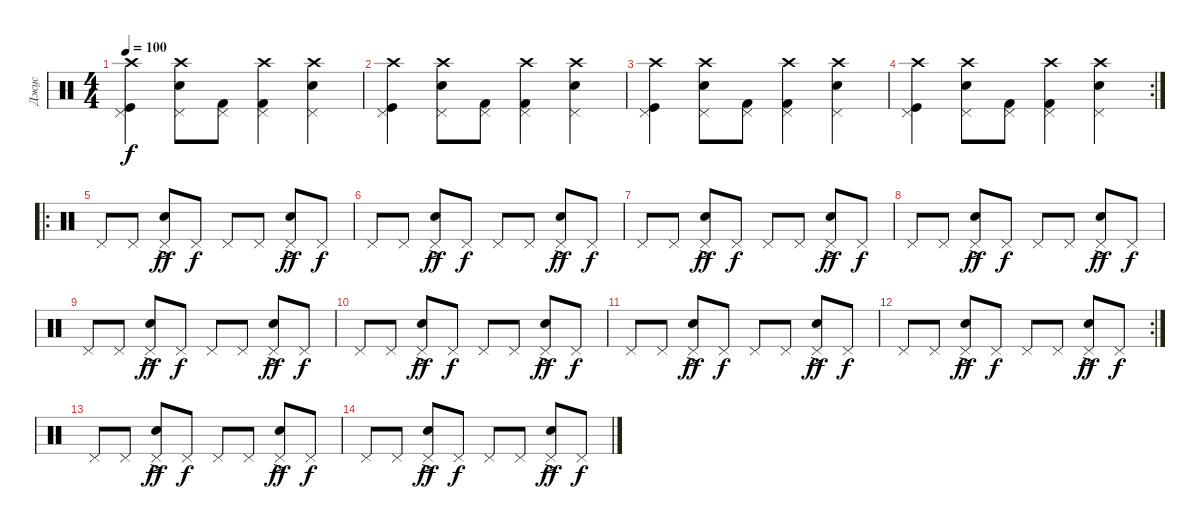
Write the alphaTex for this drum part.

\track ("Джус" "Джус") {instrument percussion}
\staff {score}
\articulation defaults
\ts (4 4)
\tempo 100
\clef neutral
\ks c
("Crash high (hit)" "Pedal Hi-Hat (hit)" "Kick (hit)").4{dy f} ("Crash high (hit)" "Pedal Hi-Hat (hit)" "Electric Snare (hit)").8 ("Pedal Hi-Hat (hit)" "Kick (hit) 2").8 ("Crash high (hit)" "Pedal Hi-Hat (hit)" "Kick (hit) 2").4 ("Crash high (hit)" "Pedal Hi-Hat (hit)" "Electric Snare (hit)").4 |
("Crash high (hit)" "Pedal Hi-Hat (hit)" "Kick (hit)").4 ("Crash high (hit)" "Pedal Hi-Hat (hit)" "Electric Snare (hit)").8 ("Pedal Hi-Hat (hit)" "Kick (hit) 2").8 ("Crash high (hit)" "Pedal Hi-Hat (hit)" "Kick (hit) 2").4 ("Crash high (hit)" "Pedal Hi-Hat (hit)" "Electric Snare (hit)").4 |
("Crash high (hit)" "Pedal Hi-Hat (hit)" "Kick (hit)").4 ("Crash high (hit)" "Pedal Hi-Hat (hit)" "Electric Snare (hit)").8 ("Pedal Hi-Hat (hit)" "Kick (hit) 2").8 ("Crash high (hit)" "Pedal Hi-Hat (hit)" "Kick (hit) 2").4 ("Crash high (hit)" "Pedal Hi-Hat (hit)" "Electric Snare (hit)").4 |
\rc 2
("Crash high (hit)" "Pedal Hi-Hat (hit)" "Kick (hit)").4 ("Crash high (hit)" "Pedal Hi-Hat (hit)" "Electric Snare (hit)").8 ("Pedal Hi-Hat (hit)" "Kick (hit) 2").8 ("Crash high (hit)" "Pedal Hi-Hat (hit)" "Kick (hit) 2").4 ("Crash high (hit)" "Pedal Hi-Hat (hit)" "Electric Snare (hit)").4 |
\ro "Pedal Hi-Hat (hit)".8 "Pedal Hi-Hat (hit)".8
("Pedal Hi-Hat (hit)"{ac} "Electric Snare (hit)").8{dy ff} "Pedal Hi-Hat (hit)".8{dy f} "Pedal Hi-Hat (hit)".8 "Pedal Hi-Hat (hit)".8 ("Pedal Hi-Hat (hit)"{ac} "Electric Snare (hit)").8{dy ff} "Pedal Hi-Hat (hit)".8{dy f} |
"Pedal Hi-Hat (hit)".8 "Pedal Hi-Hat (hit)".8 ("Pedal Hi-Hat (hit)"{ac} "Electric Snare (hit)").8{dy ff} "Pedal Hi-Hat (hit)".8{dy f} "Pedal Hi-Hat (hit)".8 "Pedal Hi-Hat (hit)".8 ("Pedal Hi-Hat (hit)"{ac} "Electric Snare (hit)").8{dy ff} "Pedal Hi-Hat (hit)".8{dy f} |
"Pedal Hi-Hat (hit)".8 "Pedal Hi-Hat (hit)".8 ("Pedal Hi-Hat (hit)"{ac} "Electric Snare (hit)").8{dy ff} "Pedal Hi-Hat (hit)".8{dy f} "Pedal Hi-Hat (hit)".8 "Pedal Hi-Hat (hit)".8 ("Pedal Hi-Hat (hit)"{ac} "Electric Snare (hit)").8{dy ff} "Pedal Hi-Hat (hit)".8{dy f} |
"Pedal Hi-Hat (hit)".8 "Pedal Hi-Hat (hit)".8 ("Pedal Hi-Hat (hit)"{ac} "Electric Snare (hit)").8{dy ff} "Pedal Hi-Hat (hit)".8{dy f} "Pedal Hi-Hat (hit)".8 "Pedal Hi-Hat (hit)".8 ("Pedal Hi-Hat (hit)"{ac} "Electric Snare (hit)").8{dy ff} "Pedal Hi-Hat (hit)".8{dy f} |
"Pedal Hi-Hat (hit)".8 "Pedal Hi-Hat (hit)".8 ("Pedal Hi-Hat (hit)"{ac} "Electric Snare (hit)").8{dy ff} "Pedal Hi-Hat (hit)".8{dy f} "Pedal Hi-Hat (hit)".8 "Pedal Hi-Hat (hit)".8 ("Pedal Hi-Hat (hit)"{ac} "Electric Snare (hit)").8{dy ff} "Pedal Hi-Hat (hit)".8{dy f} |
"Pedal Hi-Hat (hit)".8 "Pedal Hi-Hat (hit)".8 ("Pedal Hi-Hat (hit)"{ac} "Electric Snare (hit)").8{dy ff} "Pedal Hi-Hat (hit)".8{dy f} "Pedal Hi-Hat (hit)".8 "Pedal Hi-Hat (hit)".8 ("Pedal Hi-Hat (hit)"{ac} "Electric Snare (hit)").8{dy ff} "Pedal Hi-Hat (hit)".8{dy f} |
"Pedal Hi-Hat (hit)".8 "Pedal Hi-Hat (hit)".8 ("Pedal Hi-Hat (hit)"{ac} "Electric Snare (hit)").8{dy ff} "Pedal Hi-Hat (hit)".8{dy f} "Pedal Hi-Hat (hit)".8 "Pedal Hi-Hat (hit)".8 ("Pedal Hi-Hat (hit)"{ac} "Electric Snare (hit)").8{dy ff} "Pedal Hi-Hat (hit)".8{dy f} |
\rc 2 "Pedal Hi-Hat (hit)".8 "Pedal Hi-Hat (hit)".8
("Pedal Hi-Hat (hit)"{ac} "Electric Snare (hit)").8{dy ff} "Pedal Hi-Hat (hit)".8{dy f} "Pedal Hi-Hat (hit)".8 "Pedal Hi-Hat (hit)".8 ("Pedal Hi-Hat (hit)"{ac} "Electric Snare (hit)").8{dy ff} "Pedal Hi-Hat (hit)".8{dy f} |
"Pedal Hi-Hat (hit)".8 "Pedal Hi-Hat (hit)".8 ("Pedal Hi-Hat (hit)"{ac} "Electric Snare (hit)").8{dy ff} "Pedal Hi-Hat (hit)".8{dy f} "Pedal Hi-Hat (hit)".8 "Pedal Hi-Hat (hit)".8 ("Pedal Hi-Hat (hit)"{ac} "Electric Snare (hit)").8{dy ff} "Pedal Hi-Hat (hit)".8{dy f} |
"Pedal Hi-Hat (hit)".8 "Pedal Hi-Hat (hit)".8 ("Pedal Hi-Hat (hit)"{ac} "Electric Snare (hit)").8{dy ff} "Pedal Hi-Hat (hit)".8{dy f} "Pedal Hi-Hat (hit)".8 "Pedal Hi-Hat (hit)".8 ("Pedal Hi-Hat (hit)"{ac} "Electric Snare (hit)").8{dy ff} "Pedal Hi-Hat (hit)".8{dy f}
